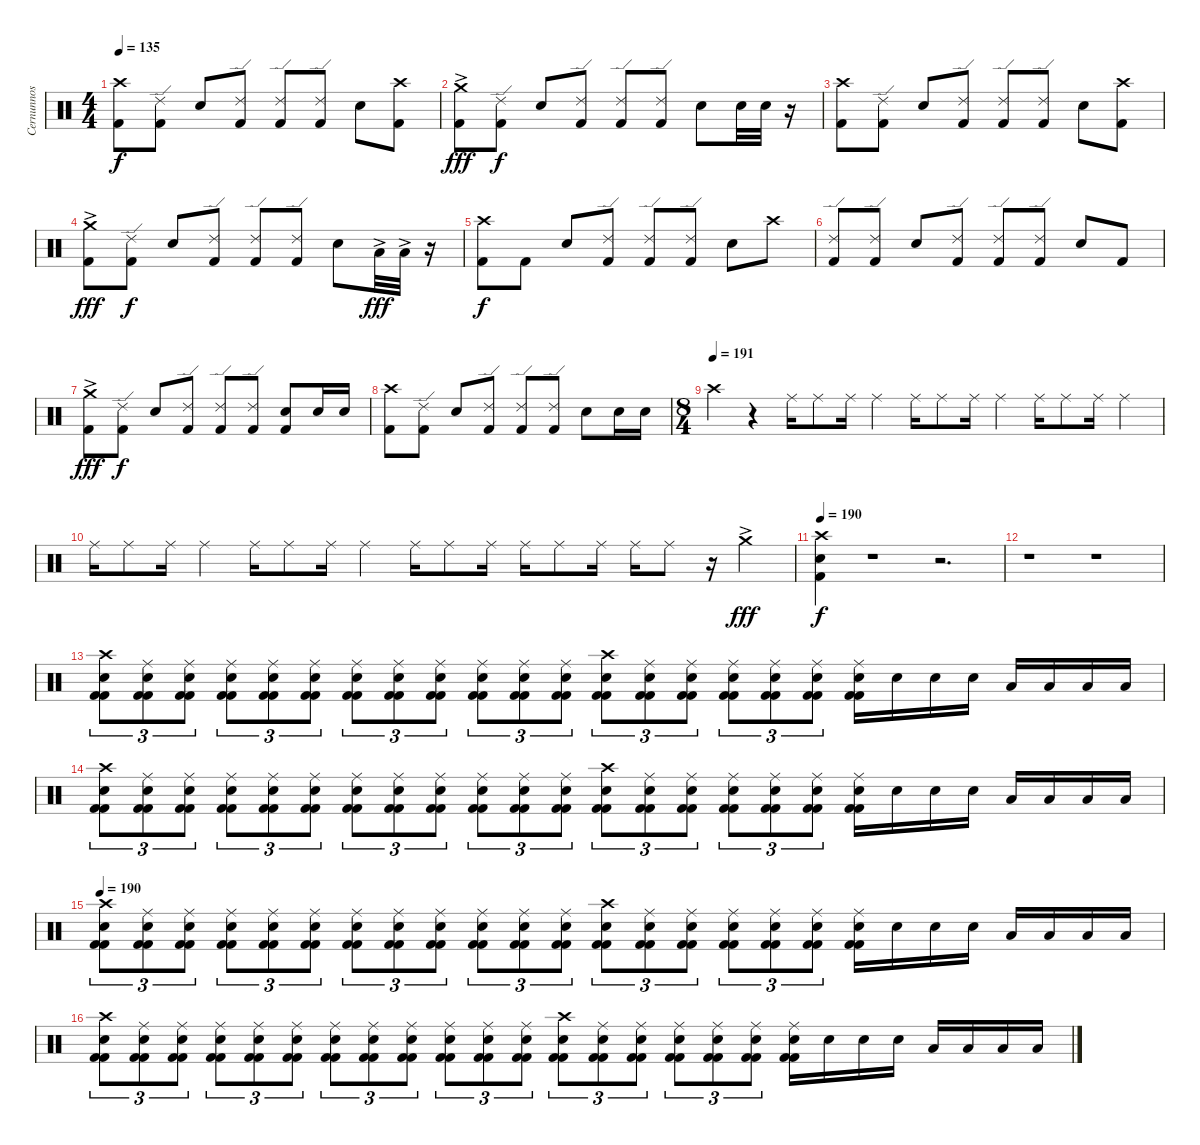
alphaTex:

\track ("Cernunnos (in memory)" "Cernunnos ") {instrument percussion}
\staff {score}
\articulation defaults
\ts (4 4)
\tempo 135
\clef neutral
\ks c
("Crash high (hit)" "Kick (hit) 2").8{dy f} ("Ride (edge) 2" "Kick (hit) 2").8 "Electric Snare (hit)".8 ("Ride (edge) 2" "Kick (hit) 2").8 ("Ride (edge) 2" "Kick (hit) 2").8 ("Ride (edge) 2" "Kick (hit) 2").8 "Electric Snare (hit)".8 ("Crash high (hit)" "Kick (hit) 2").8 |
("Crash medium (hit)"{ac} "Kick (hit) 2").8{dy fff} ("Ride (edge) 2" "Kick (hit) 2").8{dy f} "Electric Snare (hit)".8 ("Ride (edge) 2" "Kick (hit) 2").8 ("Ride (edge) 2" "Kick (hit) 2").8 ("Ride (edge) 2" "Kick (hit) 2").8 "Electric Snare (hit)".8 "Electric Snare (hit)".32 "Electric Snare (hit)".32 r.16 |
("Crash high (hit)" "Kick (hit) 2").8 ("Ride (edge) 2" "Kick (hit) 2").8 "Electric Snare (hit)".8 ("Ride (edge) 2" "Kick (hit) 2").8 ("Ride (edge) 2" "Kick (hit) 2").8 ("Ride (edge) 2" "Kick (hit) 2").8 "Electric Snare (hit)".8 ("Crash high (hit)" "Kick (hit) 2").8 |
("Crash medium (hit)"{ac} "Kick (hit) 2").8{dy fff} ("Ride (edge) 2" "Kick (hit) 2").8{dy f} "Electric Snare (hit)".8 ("Ride (edge) 2" "Kick (hit) 2").8 ("Ride (edge) 2" "Kick (hit) 2").8 ("Ride (edge) 2" "Kick (hit) 2").8 "Electric Snare (hit)".8 "Low Floor Tom (hit)"{ac}.32{dy fff} "Low Floor Tom (hit)"{ac}.32 r.16 |
("Crash high (hit)" "Kick (hit) 2").8{dy f} "Kick (hit) 2".8 "Electric Snare (hit)".8 ("Ride (edge) 2" "Kick (hit) 2").8 ("Ride (edge) 2" "Kick (hit) 2").8 ("Ride (edge) 2" "Kick (hit) 2").8 "Electric Snare (hit)".8 "Crash high (hit)".8 |
("Ride (edge) 2" "Kick (hit) 2").8 ("Ride (edge) 2" "Kick (hit) 2").8 "Electric Snare (hit)".8 ("Ride (edge) 2" "Kick (hit) 2").8 ("Ride (edge) 2" "Kick (hit) 2").8 ("Ride (edge) 2" "Kick (hit) 2").8 "Electric Snare (hit)".8 "Kick (hit) 2".8 |
("Crash medium (hit)"{ac} "Kick (hit) 2").8{dy fff} ("Ride (edge) 2" "Kick (hit) 2").8{dy f} "Electric Snare (hit)".8 ("Ride (edge) 2" "Kick (hit) 2").8 ("Ride (edge) 2" "Kick (hit) 2").8 ("Ride (edge) 2" "Kick (hit) 2").8 ("Electric Snare (hit)" "Kick (hit) 2").8 "Electric Snare (hit)".16 "Electric Snare (hit)".16 |
("Crash high (hit)" "Kick (hit) 2").8 ("Ride (edge) 2" "Kick (hit) 2").8 "Electric Snare (hit)".8 ("Ride (edge) 2" "Kick (hit) 2").8 ("Ride (edge) 2" "Kick (hit) 2").8 ("Ride (edge) 2" "Kick (hit) 2").8 "Electric Snare (hit)".8 "Electric Snare (hit)".16 "Electric Snare (hit)".16 |
\ts (8 4)
\tempo (191)
"Crash high (hit)".4 r.4 "Ride (middle)".16 "Ride (middle)".8 "Ride (middle)".16 "Ride (middle)".4 "Ride (middle)".16 "Ride (middle)".8 "Ride (middle)".16 "Ride (middle)".4 "Ride (middle)".16 "Ride (middle)".8 "Ride (middle)".16 "Ride (middle)".4 |
"Ride (middle)".16 "Ride (middle)".8 "Ride (middle)".16 "Ride (middle)".4 "Ride (middle)".16 "Ride (middle)".8 "Ride (middle)".16 "Ride (middle)".4 "Ride (middle)".16 "Ride (middle)".8 "Ride (middle)".16 "Ride (middle)".16 "Ride (middle)".8 "Ride (middle)".16 "Ride (middle)".16 "Ride (middle)".8 r.16 "Crash medium (hit)"{ac}.4{dy fff} |
\tempo 190
("Crash high (hit)" "Electric Snare (hit)" "Kick (hit) 2").4{dy f} r.1 r.2{d} |
r.1 r.1 |
("Crash high (hit)" "Electric Snare (hit)" "Kick (hit) 2" "Kick (hit) 2").8{tu (3 2)} ("Ride (middle)" "Electric Snare (hit)" "Kick (hit) 2" "Kick (hit) 2").8{tu (3 2)} ("Ride (middle)" "Electric Snare (hit)" "Kick (hit) 2" "Kick (hit) 2").8{tu (3 2)} ("Ride (middle)" "Electric Snare (hit)" "Kick (hit) 2" "Kick (hit) 2").8{tu (3 2)} ("Ride (middle)" "Electric Snare (hit)" "Kick (hit) 2" "Kick (hit) 2").8{tu (3 2)} ("Ride (middle)" "Electric Snare (hit)" "Kick (hit) 2" "Kick (hit) 2").8{tu (3 2)} ("Ride (middle)" "Electric Snare (hit)" "Kick (hit) 2" "Kick (hit) 2").8{tu (3 2)} ("Ride (middle)" "Electric Snare (hit)" "Kick (hit) 2" "Kick (hit) 2").8{tu (3 2)} ("Ride (middle)" "Electric Snare (hit)" "Kick (hit) 2" "Kick (hit) 2").8{tu (3 2)} ("Ride (middle)" "Electric Snare (hit)" "Kick (hit) 2" "Kick (hit) 2").8{tu (3 2)} ("Ride (middle)" "Electric Snare (hit)" "Kick (hit) 2" "Kick (hit) 2").8{tu (3 2)} ("Ride (middle)" "Electric Snare (hit)" "Kick (hit) 2" "Kick (hit) 2").8{tu (3 2)} ("Crash high (hit)" "Electric Snare (hit)" "Kick (hit) 2" "Kick (hit) 2").8{tu (3 2)} ("Ride (middle)" "Electric Snare (hit)" "Kick (hit) 2" "Kick (hit) 2").8{tu (3 2)} ("Ride (middle)" "Electric Snare (hit)" "Kick (hit) 2" "Kick (hit) 2").8{tu (3 2)} ("Ride (middle)" "Electric Snare (hit)" "Kick (hit) 2" "Kick (hit) 2").8{tu (3 2)} ("Ride (middle)" "Electric Snare (hit)" "Kick (hit) 2" "Kick (hit) 2").8{tu (3 2)} ("Ride (middle)" "Electric Snare (hit)" "Kick (hit) 2" "Kick (hit) 2").8{tu (3 2)} ("Ride (middle)" "Electric Snare (hit)" "Kick (hit) 2" "Kick (hit) 2").16 "Electric Snare (hit)".16 "Electric Snare (hit)".16 "Electric Snare (hit)".16 "Low Floor Tom (hit)".16 "Low Floor Tom (hit)".16 "Low Floor Tom (hit)".16 "Low Floor Tom (hit)".16 |
("Crash high (hit)" "Electric Snare (hit)" "Kick (hit) 2" "Kick (hit) 2").8{tu (3 2)} ("Ride (middle)" "Electric Snare (hit)" "Kick (hit) 2" "Kick (hit) 2").8{tu (3 2)} ("Ride (middle)" "Electric Snare (hit)" "Kick (hit) 2" "Kick (hit) 2").8{tu (3 2)} ("Ride (middle)" "Electric Snare (hit)" "Kick (hit) 2" "Kick (hit) 2").8{tu (3 2)} ("Ride (middle)" "Electric Snare (hit)" "Kick (hit) 2" "Kick (hit) 2").8{tu (3 2)} ("Ride (middle)" "Electric Snare (hit)" "Kick (hit) 2" "Kick (hit) 2").8{tu (3 2)} ("Ride (middle)" "Electric Snare (hit)" "Kick (hit) 2" "Kick (hit) 2").8{tu (3 2)} ("Ride (middle)" "Electric Snare (hit)" "Kick (hit) 2" "Kick (hit) 2").8{tu (3 2)} ("Ride (middle)" "Electric Snare (hit)" "Kick (hit) 2" "Kick (hit) 2").8{tu (3 2)} ("Ride (middle)" "Electric Snare (hit)" "Kick (hit) 2" "Kick (hit) 2").8{tu (3 2)} ("Ride (middle)" "Electric Snare (hit)" "Kick (hit) 2" "Kick (hit) 2").8{tu (3 2)} ("Ride (middle)" "Electric Snare (hit)" "Kick (hit) 2" "Kick (hit) 2").8{tu (3 2)} ("Crash high (hit)" "Electric Snare (hit)" "Kick (hit) 2" "Kick (hit) 2").8{tu (3 2)} ("Ride (middle)" "Electric Snare (hit)" "Kick (hit) 2" "Kick (hit) 2").8{tu (3 2)} ("Ride (middle)" "Electric Snare (hit)" "Kick (hit) 2" "Kick (hit) 2").8{tu (3 2)} ("Ride (middle)" "Electric Snare (hit)" "Kick (hit) 2" "Kick (hit) 2").8{tu (3 2)} ("Ride (middle)" "Electric Snare (hit)" "Kick (hit) 2" "Kick (hit) 2").8{tu (3 2)} ("Ride (middle)" "Electric Snare (hit)" "Kick (hit) 2" "Kick (hit) 2").8{tu (3 2)} ("Ride (middle)" "Electric Snare (hit)" "Kick (hit) 2" "Kick (hit) 2").16 "Electric Snare (hit)".16 "Electric Snare (hit)".16 "Electric Snare (hit)".16 "Low Floor Tom (hit)".16 "Low Floor Tom (hit)".16 "Low Floor Tom (hit)".16 "Low Floor Tom (hit)".16 |
\tempo 190
("Crash high (hit)" "Electric Snare (hit)" "Kick (hit) 2" "Kick (hit) 2").8{tu (3 2)} ("Ride (middle)" "Electric Snare (hit)" "Kick (hit) 2" "Kick (hit) 2").8{tu (3 2)} ("Ride (middle)" "Electric Snare (hit)" "Kick (hit) 2" "Kick (hit) 2").8{tu (3 2)} ("Ride (middle)" "Electric Snare (hit)" "Kick (hit) 2" "Kick (hit) 2").8{tu (3 2)} ("Ride (middle)" "Electric Snare (hit)" "Kick (hit) 2" "Kick (hit) 2").8{tu (3 2)} ("Ride (middle)" "Electric Snare (hit)" "Kick (hit) 2" "Kick (hit) 2").8{tu (3 2)} ("Ride (middle)" "Electric Snare (hit)" "Kick (hit) 2" "Kick (hit) 2").8{tu (3 2)} ("Ride (middle)" "Electric Snare (hit)" "Kick (hit) 2" "Kick (hit) 2").8{tu (3 2)} ("Ride (middle)" "Electric Snare (hit)" "Kick (hit) 2" "Kick (hit) 2").8{tu (3 2)} ("Ride (middle)" "Electric Snare (hit)" "Kick (hit) 2" "Kick (hit) 2").8{tu (3 2)} ("Ride (middle)" "Electric Snare (hit)" "Kick (hit) 2" "Kick (hit) 2").8{tu (3 2)} ("Ride (middle)" "Electric Snare (hit)" "Kick (hit) 2" "Kick (hit) 2").8{tu (3 2)} ("Crash high (hit)" "Electric Snare (hit)" "Kick (hit) 2" "Kick (hit) 2").8{tu (3 2)} ("Ride (middle)" "Electric Snare (hit)" "Kick (hit) 2" "Kick (hit) 2").8{tu (3 2)} ("Ride (middle)" "Electric Snare (hit)" "Kick (hit) 2" "Kick (hit) 2").8{tu (3 2)} ("Ride (middle)" "Electric Snare (hit)" "Kick (hit) 2" "Kick (hit) 2").8{tu (3 2)} ("Ride (middle)" "Electric Snare (hit)" "Kick (hit) 2" "Kick (hit) 2").8{tu (3 2)} ("Ride (middle)" "Electric Snare (hit)" "Kick (hit) 2" "Kick (hit) 2").8{tu (3 2)} ("Ride (middle)" "Electric Snare (hit)" "Kick (hit) 2" "Kick (hit) 2").16 "Electric Snare (hit)".16 "Electric Snare (hit)".16 "Electric Snare (hit)".16 "Low Floor Tom (hit)".16 "Low Floor Tom (hit)".16 "Low Floor Tom (hit)".16 "Low Floor Tom (hit)".16 |
("Crash high (hit)" "Electric Snare (hit)" "Kick (hit) 2" "Kick (hit) 2").8{tu (3 2)} ("Ride (middle)" "Electric Snare (hit)" "Kick (hit) 2" "Kick (hit) 2").8{tu (3 2)} ("Ride (middle)" "Electric Snare (hit)" "Kick (hit) 2" "Kick (hit) 2").8{tu (3 2)} ("Ride (middle)" "Electric Snare (hit)" "Kick (hit) 2" "Kick (hit) 2").8{tu (3 2)} ("Ride (middle)" "Electric Snare (hit)" "Kick (hit) 2" "Kick (hit) 2").8{tu (3 2)} ("Ride (middle)" "Electric Snare (hit)" "Kick (hit) 2" "Kick (hit) 2").8{tu (3 2)} ("Ride (middle)" "Electric Snare (hit)" "Kick (hit) 2" "Kick (hit) 2").8{tu (3 2)} ("Ride (middle)" "Electric Snare (hit)" "Kick (hit) 2" "Kick (hit) 2").8{tu (3 2)} ("Ride (middle)" "Electric Snare (hit)" "Kick (hit) 2" "Kick (hit) 2").8{tu (3 2)} ("Ride (middle)" "Electric Snare (hit)" "Kick (hit) 2" "Kick (hit) 2").8{tu (3 2)} ("Ride (middle)" "Electric Snare (hit)" "Kick (hit) 2" "Kick (hit) 2").8{tu (3 2)} ("Ride (middle)" "Electric Snare (hit)" "Kick (hit) 2" "Kick (hit) 2").8{tu (3 2)} ("Crash high (hit)" "Electric Snare (hit)" "Kick (hit) 2" "Kick (hit) 2").8{tu (3 2)} ("Ride (middle)" "Electric Snare (hit)" "Kick (hit) 2" "Kick (hit) 2").8{tu (3 2)} ("Ride (middle)" "Electric Snare (hit)" "Kick (hit) 2" "Kick (hit) 2").8{tu (3 2)} ("Ride (middle)" "Electric Snare (hit)" "Kick (hit) 2" "Kick (hit) 2").8{tu (3 2)} ("Ride (middle)" "Electric Snare (hit)" "Kick (hit) 2" "Kick (hit) 2").8{tu (3 2)} ("Ride (middle)" "Electric Snare (hit)" "Kick (hit) 2" "Kick (hit) 2").8{tu (3 2)} ("Ride (middle)" "Electric Snare (hit)" "Kick (hit) 2" "Kick (hit) 2").16 "Electric Snare (hit)".16 "Electric Snare (hit)".16 "Electric Snare (hit)".16 "Low Floor Tom (hit)".16 "Low Floor Tom (hit)".16 "Low Floor Tom (hit)".16 "Low Floor Tom (hit)".16
